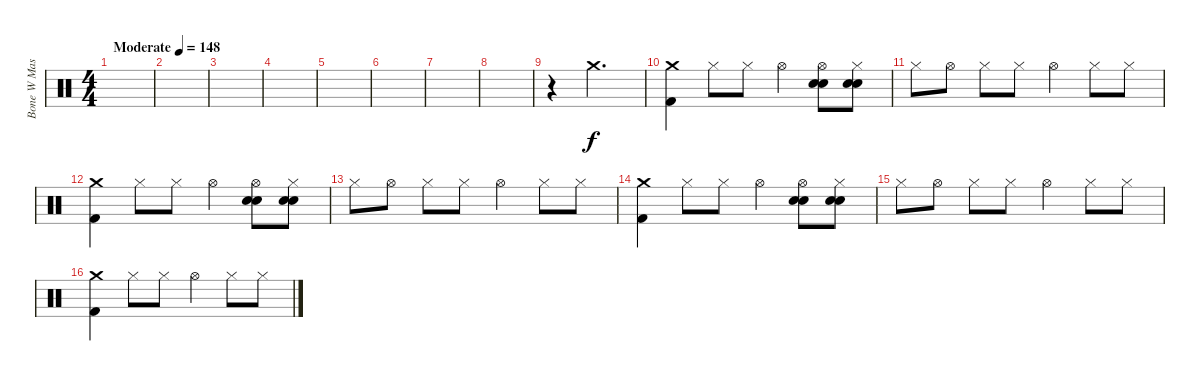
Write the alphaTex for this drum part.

\track ("Bone W Mashine" "Bone W Mas") {instrument percussion}
\staff {score}
\articulation defaults
\ts (4 4)
\tempo (148 "Moderate")
\clef neutral
\ks c
|
|
|
|
|
|
|
|
r.4{volume 0} "Crash medium (hit)".2{d volume 16} |
("Crash medium (hit)" "Kick (hit) 2").4{volume 12} "Hi-Hat (closed)".8 "Hi-Hat (closed)".8 "Hi-Hat (open)".4 ("Hi-Hat (open)" "Electric Snare (hit)" "Electric Snare (hit)").8 ("Hi-Hat (closed)" "Electric Snare (hit)" "Electric Snare (hit)").8 |
"Hi-Hat (closed)".8 "Hi-Hat (open)".8 "Hi-Hat (closed)".8 "Hi-Hat (closed)".8 "Hi-Hat (open)".4 "Hi-Hat (closed)".8 "Hi-Hat (closed)".8 |
("Crash medium (hit)" "Kick (hit) 2").4 "Hi-Hat (closed)".8 "Hi-Hat (closed)".8 "Hi-Hat (open)".4 ("Hi-Hat (open)" "Electric Snare (hit)" "Electric Snare (hit)").8 ("Hi-Hat (closed)" "Electric Snare (hit)" "Electric Snare (hit)").8 |
"Hi-Hat (closed)".8 "Hi-Hat (open)".8 "Hi-Hat (closed)".8 "Hi-Hat (closed)".8 "Hi-Hat (open)".4 "Hi-Hat (closed)".8 "Hi-Hat (closed)".8 |
("Crash medium (hit)" "Kick (hit) 2").4 "Hi-Hat (closed)".8 "Hi-Hat (closed)".8 "Hi-Hat (open)".4 ("Hi-Hat (open)" "Electric Snare (hit)" "Electric Snare (hit)").8 ("Hi-Hat (closed)" "Electric Snare (hit)" "Electric Snare (hit)").8 |
"Hi-Hat (closed)".8 "Hi-Hat (open)".8 "Hi-Hat (closed)".8 "Hi-Hat (closed)".8 "Hi-Hat (open)".4 "Hi-Hat (closed)".8 "Hi-Hat (closed)".8 |
("Crash medium (hit)" "Kick (hit) 2").4 "Hi-Hat (closed)".8 "Hi-Hat (closed)".8 "Hi-Hat (open)".4 "Hi-Hat (closed)".8 "Hi-Hat (closed)".8
